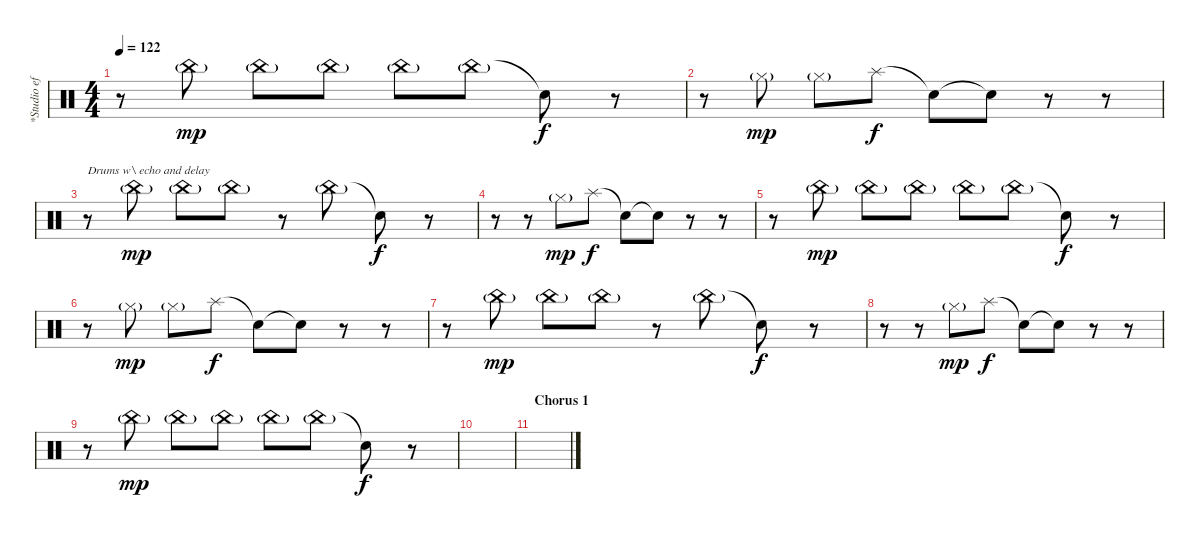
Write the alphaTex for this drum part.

\track ("*Studio effects (Sampled drums)" "*Studio ef") {instrument percussion}
\staff {score}
\articulation defaults
\ts (4 4)
\tempo 122
\clef neutral
\ks c
r.8{dy f} "China (hit)"{g}.8{dy mp balance 4} "China (hit)"{g}.8{balance 4} "China (hit)"{g}.8{balance 4} "China (hit)"{g}.8{balance 4} "China (hit)"{g}.8{balance 4} "Snare (hit)"{t}.8{dy f} r.8 |
r.8 "Hi-Hat (closed)"{g}.8{dy mp} "Hi-Hat (closed)"{g}.8 "Splash (hit)".8{dy f balance 12} "Snare (hit)"{t}.8 "Snare (hit)"{t}.8 r.8 r.8 |
r.8{txt "Drums w\\ echo and delay"} "China (hit)"{g}.8{dy mp balance 4} "China (hit)"{g}.8{balance 4} "China (hit)"{g}.8{balance 4} r.8 "China (hit)"{g}.8{balance 4} "Snare (hit)"{t}.8{dy f} r.8 |
r.8 r.8 "Hi-Hat (closed)"{g}.8{dy mp} "Splash (hit)".8{dy f balance 12} "Snare (hit)"{t}.8 "Snare (hit)"{t}.8 r.8 r.8 |
r.8 "China (hit)"{g}.8{dy mp balance 4} "China (hit)"{g}.8{balance 4} "China (hit)"{g}.8{balance 4} "China (hit)"{g}.8{balance 4} "China (hit)"{g}.8{balance 4} "Snare (hit)"{t}.8{dy f} r.8 |
r.8 "Hi-Hat (closed)"{g}.8{dy mp} "Hi-Hat (closed)"{g}.8 "Splash (hit)".8{dy f balance 12} "Snare (hit)"{t}.8 "Snare (hit)"{t}.8 r.8 r.8 |
r.8 "China (hit)"{g}.8{dy mp balance 4} "China (hit)"{g}.8{balance 4} "China (hit)"{g}.8{balance 4} r.8 "China (hit)"{g}.8{balance 4} "Snare (hit)"{t}.8{dy f} r.8 |
r.8 r.8 "Hi-Hat (closed)"{g}.8{dy mp} "Splash (hit)".8{dy f balance 12} "Snare (hit)"{t}.8 "Snare (hit)"{t}.8 r.8 r.8 |
r.8 "China (hit)"{g}.8{dy mp balance 4} "China (hit)"{g}.8{balance 4} "China (hit)"{g}.8{balance 4} "China (hit)"{g}.8{balance 4} "China (hit)"{g}.8{balance 4} "Snare (hit)"{t}.8{dy f} r.8 |
|
\section ("" "Chorus 1")
